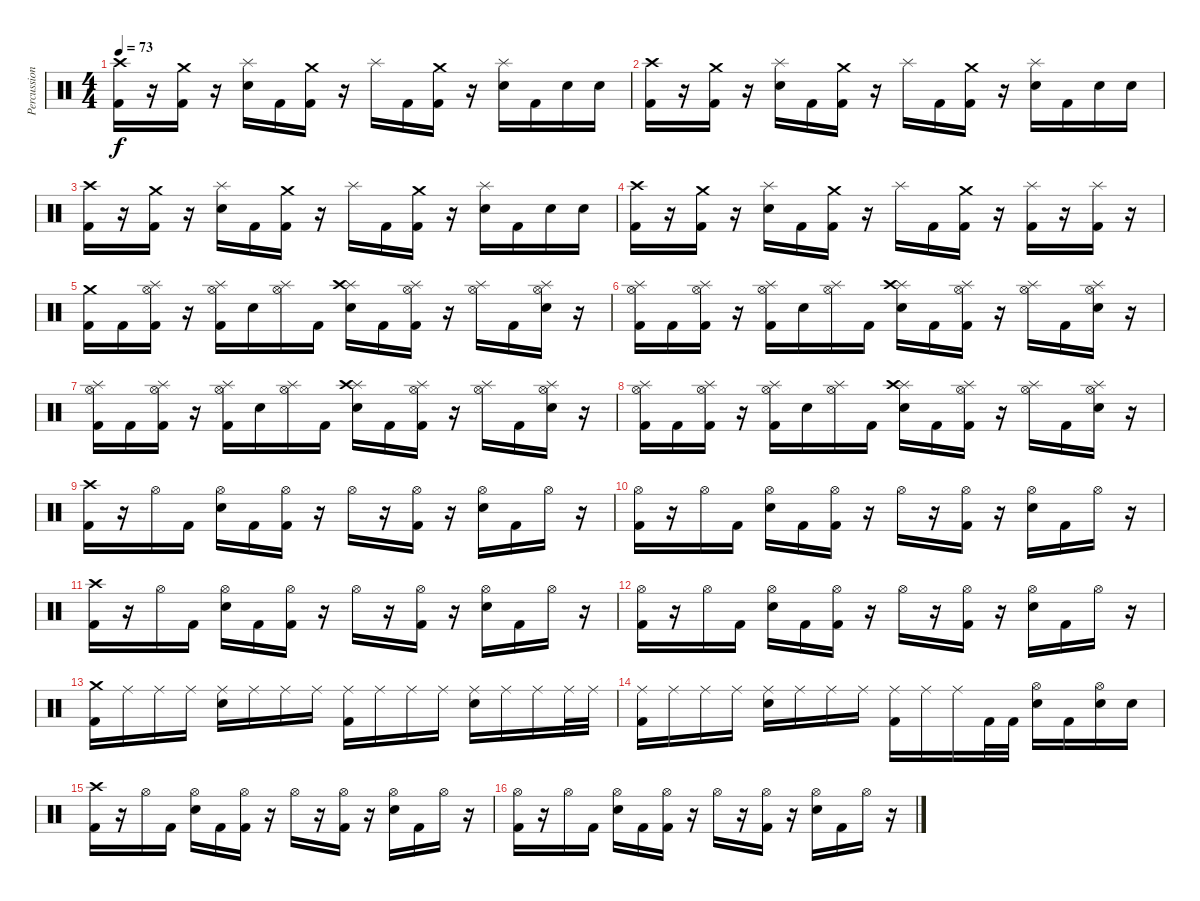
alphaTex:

\track ("Percussion" "Percussion") {instrument percussion}
\staff {score}
\articulation defaults
\ts (4 4)
\tempo 73
\clef neutral
\ks c
("Crash high (hit)" "Kick (hit) 2").16{dy f} r.16 ("Crash medium (hit)" "Kick (hit) 2").16 r.16 ("Splash (hit)" "Electric Snare (hit)").16 "Kick (hit) 2".16 ("Crash medium (hit)" "Kick (hit) 2").16 r.16 "Splash (hit)".16 "Kick (hit) 2".16 ("Crash medium (hit)" "Kick (hit) 2").16 r.16 ("Splash (hit)" "Electric Snare (hit)").16 "Kick (hit) 2".16 "Electric Snare (hit)".16 "Electric Snare (hit)".16 |
("Crash high (hit)" "Kick (hit) 2").16 r.16 ("Crash medium (hit)" "Kick (hit) 2").16 r.16 ("Splash (hit)" "Electric Snare (hit)").16 "Kick (hit) 2".16 ("Crash medium (hit)" "Kick (hit) 2").16 r.16 "Splash (hit)".16 "Kick (hit) 2".16 ("Crash medium (hit)" "Kick (hit) 2").16 r.16 ("Splash (hit)" "Electric Snare (hit)").16 "Kick (hit) 2".16 "Electric Snare (hit)".16 "Electric Snare (hit)".16 |
("Crash high (hit)" "Kick (hit) 2").16 r.16 ("Crash medium (hit)" "Kick (hit) 2").16 r.16 ("Splash (hit)" "Electric Snare (hit)").16 "Kick (hit) 2".16 ("Crash medium (hit)" "Kick (hit) 2").16 r.16 "Splash (hit)".16 "Kick (hit) 2".16 ("Crash medium (hit)" "Kick (hit) 2").16 r.16 ("Splash (hit)" "Electric Snare (hit)").16 "Kick (hit) 2".16 "Electric Snare (hit)".16 "Electric Snare (hit)".16 |
("Crash high (hit)" "Kick (hit) 2").16 r.16 ("Crash medium (hit)" "Kick (hit) 2").16 r.16 ("Splash (hit)" "Electric Snare (hit)").16 "Kick (hit) 2".16 ("Crash medium (hit)" "Kick (hit) 2").16 r.16 "Splash (hit)".16 "Kick (hit) 2".16 ("Crash medium (hit)" "Kick (hit) 2").16 r.16 ("Splash (hit)" "Kick (hit) 2").16 r.16 ("Splash (hit)" "Kick (hit) 2").16 r.16 |
("Crash medium (hit)" "Kick (hit) 2").16 "Kick (hit) 2".16 ("Splash (hit)" "Hi-Hat (open)" "Kick (hit) 2").16 r.16 ("Splash (hit)" "Hi-Hat (open)" "Kick (hit) 2").16 "Electric Snare (hit)".16 ("Splash (hit)" "Hi-Hat (open)").16 "Kick (hit) 2".16 ("Splash (hit)" "Crash high (hit)" "Electric Snare (hit)").16 "Kick (hit) 2".16 ("Splash (hit)" "Hi-Hat (open)" "Kick (hit) 2").16 r.16 ("Splash (hit)" "Hi-Hat (open)").16 "Kick (hit) 2".16 ("Splash (hit)" "Hi-Hat (open)" "Electric Snare (hit)").16 r.16 |
("Splash (hit)" "Hi-Hat (open)" "Kick (hit) 2").16 "Kick (hit) 2".16 ("Splash (hit)" "Hi-Hat (open)" "Kick (hit) 2").16 r.16 ("Splash (hit)" "Hi-Hat (open)" "Kick (hit) 2").16 "Electric Snare (hit)".16 ("Splash (hit)" "Hi-Hat (open)").16 "Kick (hit) 2".16 ("Splash (hit)" "Crash high (hit)" "Electric Snare (hit)").16 "Kick (hit) 2".16 ("Splash (hit)" "Hi-Hat (open)" "Kick (hit) 2").16 r.16 ("Splash (hit)" "Hi-Hat (open)").16 "Kick (hit) 2".16 ("Splash (hit)" "Hi-Hat (open)" "Electric Snare (hit)").16 r.16 |
("Splash (hit)" "Hi-Hat (open)" "Kick (hit) 2").16 "Kick (hit) 2".16 ("Splash (hit)" "Hi-Hat (open)" "Kick (hit) 2").16 r.16 ("Splash (hit)" "Hi-Hat (open)" "Kick (hit) 2").16 "Electric Snare (hit)".16 ("Splash (hit)" "Hi-Hat (open)").16 "Kick (hit) 2".16 ("Splash (hit)" "Crash high (hit)" "Electric Snare (hit)").16 "Kick (hit) 2".16 ("Splash (hit)" "Hi-Hat (open)" "Kick (hit) 2").16 r.16 ("Splash (hit)" "Hi-Hat (open)").16 "Kick (hit) 2".16 ("Splash (hit)" "Hi-Hat (open)" "Electric Snare (hit)").16 r.16 |
("Splash (hit)" "Hi-Hat (open)" "Kick (hit) 2").16 "Kick (hit) 2".16 ("Splash (hit)" "Hi-Hat (open)" "Kick (hit) 2").16 r.16 ("Splash (hit)" "Hi-Hat (open)" "Kick (hit) 2").16 "Electric Snare (hit)".16 ("Splash (hit)" "Hi-Hat (open)").16 "Kick (hit) 2".16 ("Splash (hit)" "Crash high (hit)" "Electric Snare (hit)").16 "Kick (hit) 2".16 ("Splash (hit)" "Hi-Hat (open)" "Kick (hit) 2").16 r.16 ("Splash (hit)" "Hi-Hat (open)").16 "Kick (hit) 2".16 ("Splash (hit)" "Hi-Hat (open)" "Electric Snare (hit)").16 r.16 |
("Crash high (hit)" "Kick (hit) 2").16 r.16 "Hi-Hat (open)".16 "Kick (hit) 2".16 ("Hi-Hat (open)" "Electric Snare (hit)").16 "Kick (hit) 2".16 ("Hi-Hat (open)" "Kick (hit) 2").16 r.16 "Hi-Hat (open)".16 r.16 ("Hi-Hat (open)" "Kick (hit) 2").16 r.16 ("Hi-Hat (open)" "Electric Snare (hit)").16 "Kick (hit) 2".16 "Hi-Hat (open)".16 r.16 |
("Hi-Hat (open)" "Kick (hit) 2").16 r.16 "Hi-Hat (open)".16 "Kick (hit) 2".16 ("Hi-Hat (open)" "Electric Snare (hit)").16 "Kick (hit) 2".16 ("Hi-Hat (open)" "Kick (hit) 2").16 r.16 "Hi-Hat (open)".16 r.16 ("Hi-Hat (open)" "Kick (hit) 2").16 r.16 ("Hi-Hat (open)" "Electric Snare (hit)").16 "Kick (hit) 2".16 "Hi-Hat (open)".16 r.16 |
("Crash high (hit)" "Kick (hit) 2").16 r.16 "Hi-Hat (open)".16 "Kick (hit) 2".16 ("Hi-Hat (open)" "Electric Snare (hit)").16 "Kick (hit) 2".16 ("Hi-Hat (open)" "Kick (hit) 2").16 r.16 "Hi-Hat (open)".16 r.16 ("Hi-Hat (open)" "Kick (hit) 2").16 r.16 ("Hi-Hat (open)" "Electric Snare (hit)").16 "Kick (hit) 2".16 "Hi-Hat (open)".16 r.16 |
("Hi-Hat (open)" "Kick (hit) 2").16 r.16 "Hi-Hat (open)".16 "Kick (hit) 2".16 ("Hi-Hat (open)" "Electric Snare (hit)").16 "Kick (hit) 2".16 ("Hi-Hat (open)" "Kick (hit) 2").16 r.16 "Hi-Hat (open)".16 r.16 ("Hi-Hat (open)" "Kick (hit) 2").16 r.16 ("Hi-Hat (open)" "Electric Snare (hit)").16 "Kick (hit) 2".16 "Hi-Hat (open)".16 r.16 |
("Crash medium (hit)" "Kick (hit) 2").16 "Ride (middle)".16 "Ride (middle)".16 "Ride (middle)".16 ("Ride (middle)" "Electric Snare (hit)").16 "Ride (middle)".16 "Ride (middle)".16 "Ride (middle)".16 ("Ride (middle)" "Kick (hit) 2").16 "Ride (middle)".16 "Ride (middle)".16 "Ride (middle)".16 ("Ride (middle)" "Electric Snare (hit)").16 "Ride (middle)".16 "Ride (middle)".16 "Ride (middle)".32 "Ride (middle)".32 |
("Ride (middle)" "Kick (hit) 2").16 "Ride (middle)".16 "Ride (middle)".16 "Ride (middle)".16 ("Ride (middle)" "Electric Snare (hit)").16 "Ride (middle)".16 "Ride (middle)".16 "Ride (middle)".16 ("Ride (middle)" "Kick (hit) 2").16 "Ride (middle)".16 "Ride (middle)".16 "Kick (hit) 2".32 "Kick (hit) 2".32 ("Hi-Hat (open)" "Electric Snare (hit)").16 "Kick (hit) 2".16 ("Hi-Hat (open)" "Electric Snare (hit)").16 "Electric Snare (hit)".16 |
("Crash high (hit)" "Kick (hit) 2").16 r.16 "Hi-Hat (open)".16 "Kick (hit) 2".16 ("Hi-Hat (open)" "Electric Snare (hit)").16 "Kick (hit) 2".16 ("Hi-Hat (open)" "Kick (hit) 2").16 r.16 "Hi-Hat (open)".16 r.16 ("Hi-Hat (open)" "Kick (hit) 2").16 r.16 ("Hi-Hat (open)" "Electric Snare (hit)").16 "Kick (hit) 2".16 "Hi-Hat (open)".16 r.16 |
("Hi-Hat (open)" "Kick (hit) 2").16 r.16 "Hi-Hat (open)".16 "Kick (hit) 2".16 ("Hi-Hat (open)" "Electric Snare (hit)").16 "Kick (hit) 2".16 ("Hi-Hat (open)" "Kick (hit) 2").16 r.16 "Hi-Hat (open)".16 r.16 ("Hi-Hat (open)" "Kick (hit) 2").16 r.16 ("Hi-Hat (open)" "Electric Snare (hit)").16 "Kick (hit) 2".16 "Hi-Hat (open)".16 r.16
